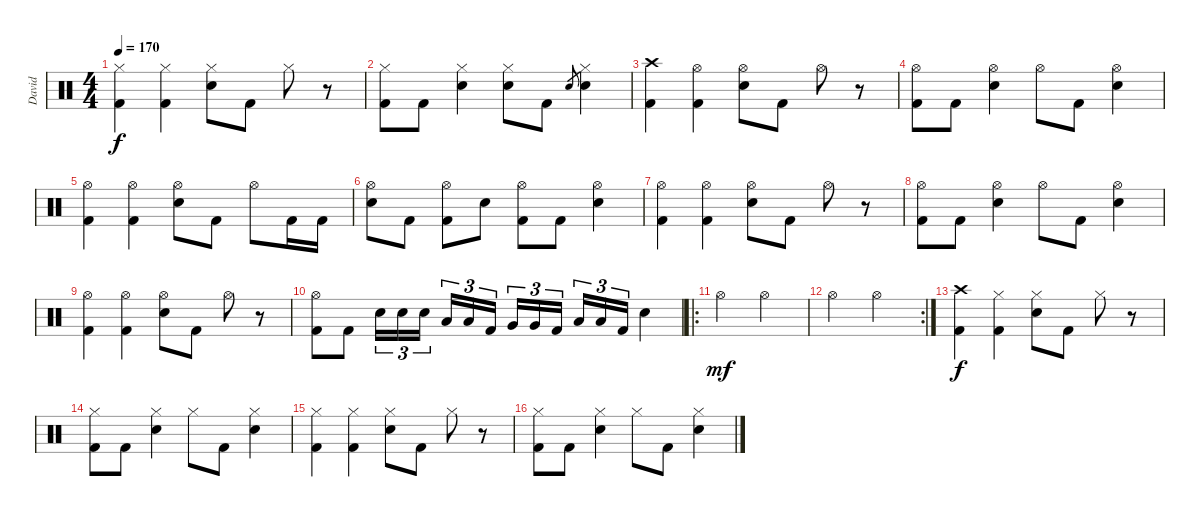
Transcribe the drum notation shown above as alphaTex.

\track ("David" "David") {instrument percussion}
\staff {score}
\articulation defaults
\ts (4 4)
\tempo 170
\clef neutral
\ks c
("Hi-Hat (closed)" "Kick (hit) 2").4{dy f} ("Hi-Hat (closed)" "Kick (hit) 2").4 ("Hi-Hat (closed)" "Snare (hit) 2").8 "Kick (hit) 2".8 "Hi-Hat (closed)".8 r.8 |
("Hi-Hat (closed)" "Kick (hit) 2").8 "Kick (hit) 2".8 ("Hi-Hat (closed)" "Snare (hit) 2").4 ("Hi-Hat (closed)" "Snare (hit) 2").8 "Kick (hit) 2".8 "Snare (hit) 2".8{gr} ("Hi-Hat (closed)" "Snare (hit) 2").4 |
("Crash high (hit)" "Kick (hit) 2").4 ("Hi-Hat (open)" "Kick (hit) 2").4 ("Hi-Hat (open)" "Snare (hit) 2").8 "Kick (hit) 2".8 "Hi-Hat (open)".8 r.8 |
("Hi-Hat (open)" "Kick (hit) 2").8 "Kick (hit) 2".8 ("Hi-Hat (open)" "Snare (hit) 2").4 "Hi-Hat (open)".8 "Kick (hit) 2".8 ("Hi-Hat (open)" "Snare (hit) 2").4 |
("Hi-Hat (open)" "Kick (hit) 2").4 ("Hi-Hat (open)" "Kick (hit) 2").4 ("Hi-Hat (open)" "Snare (hit) 2").8 "Kick (hit) 2".8 "Hi-Hat (open)".8 "Kick (hit) 2".16 "Kick (hit) 2".16 |
("Hi-Hat (open)" "Snare (hit) 2").8 "Kick (hit) 2".8 ("Hi-Hat (open)" "Kick (hit) 2").8 "Snare (hit) 2".8 ("Hi-Hat (open)" "Kick (hit) 2").8 "Kick (hit) 2".8 ("Hi-Hat (open)" "Snare (hit) 2").4 |
("Hi-Hat (open)" "Kick (hit) 2").4 ("Hi-Hat (open)" "Kick (hit) 2").4 ("Hi-Hat (open)" "Snare (hit) 2").8 "Kick (hit) 2".8 "Hi-Hat (open)".8 r.8 |
("Hi-Hat (open)" "Kick (hit) 2").8 "Kick (hit) 2".8 ("Hi-Hat (open)" "Snare (hit) 2").4 "Hi-Hat (open)".8 "Kick (hit) 2".8 ("Hi-Hat (open)" "Snare (hit) 2").4 |
("Hi-Hat (open)" "Kick (hit) 2").4 ("Hi-Hat (open)" "Kick (hit) 2").4 ("Hi-Hat (open)" "Snare (hit) 2").8 "Kick (hit) 2".8 "Hi-Hat (open)".8 r.8 |
("Hi-Hat (open)" "Kick (hit) 2").8 "Kick (hit) 2".8 "Snare (hit) 2".16{tu (3 2)} "Snare (hit) 2".16{tu (3 2)} "Snare (hit) 2".16{tu (3 2) beam splitsecondary} "Low Tom (hit)".16{tu (3 2)} "Low Tom (hit)".16{tu (3 2)} "Kick (hit) 2".16{tu (3 2)} "Very Low Tom (hit)".16{tu (3 2)} "Very Low Tom (hit)".16{tu (3 2)} "Kick (hit) 2".16{tu (3 2) beam splitsecondary} "Low Floor Tom (hit)".16{tu (3 2)} "Low Floor Tom (hit)".16{tu (3 2)} "Kick (hit) 2".16{tu (3 2)} "Snare (hit) 2".4 |
\ro "Hi-Hat (open)".2{dy mf} "Hi-Hat (open)".2
|
\rc 2 "Hi-Hat (open)".2 "Hi-Hat (open)".2
|
("Crash high (hit)" "Kick (hit) 2").4{dy f} ("Hi-Hat (closed)" "Kick (hit) 2").4 ("Hi-Hat (closed)" "Snare (hit) 2").8 "Kick (hit) 2".8 "Hi-Hat (closed)".8 r.8 |
("Hi-Hat (closed)" "Kick (hit) 2").8 "Kick (hit) 2".8 ("Hi-Hat (closed)" "Snare (hit) 2").4 "Hi-Hat (closed)".8 "Kick (hit) 2".8 ("Hi-Hat (closed)" "Snare (hit) 2").4 |
("Hi-Hat (closed)" "Kick (hit) 2").4 ("Hi-Hat (closed)" "Kick (hit) 2").4 ("Hi-Hat (closed)" "Snare (hit) 2").8 "Kick (hit) 2".8 "Hi-Hat (closed)".8 r.8 |
("Hi-Hat (closed)" "Kick (hit) 2").8 "Kick (hit) 2".8 ("Hi-Hat (closed)" "Snare (hit) 2").4 "Hi-Hat (closed)".8 "Kick (hit) 2".8 ("Hi-Hat (closed)" "Snare (hit) 2").4
